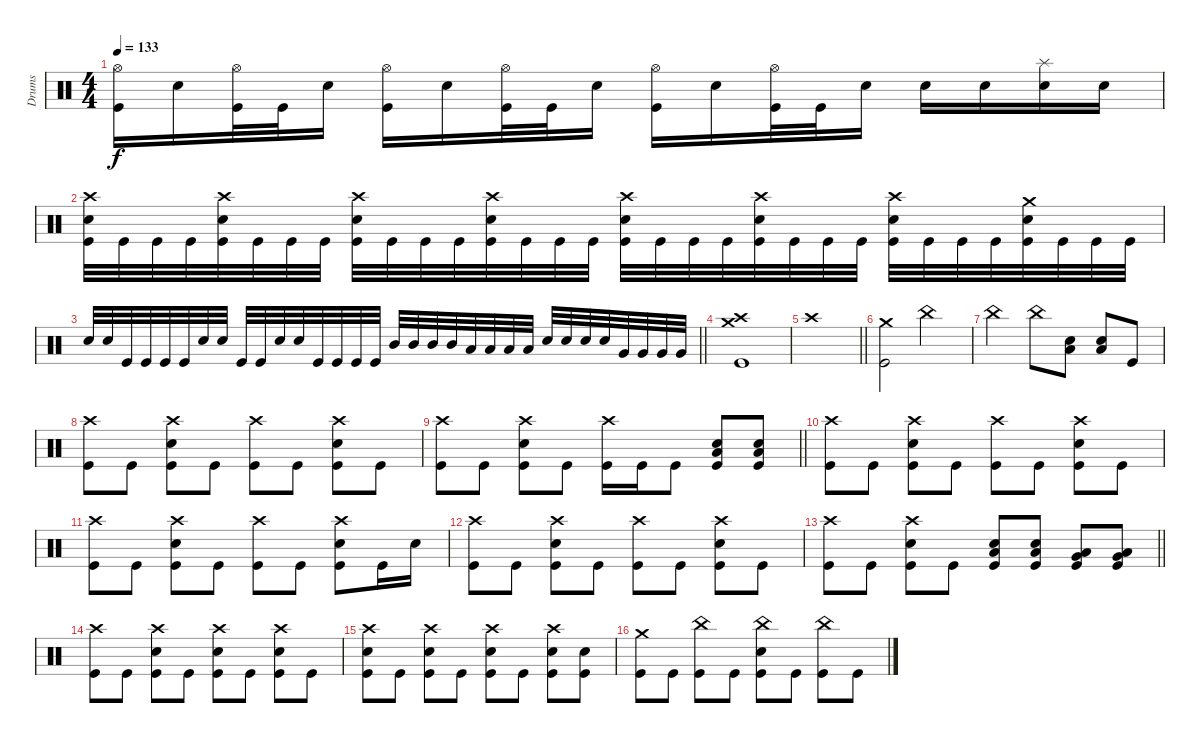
\track ("Drums" "Drums") {instrument percussion}
\staff
\articulation defaults
\ts (4 4)
\tempo 133
\clef neutral
\ks c
("Hi-Hat (open)" "Kick (hit)").16{dy f} "Electric Snare (hit)".16 ("Hi-Hat (open)" "Kick (hit)").32 "Kick (hit)".32 "Electric Snare (hit)".16 ("Hi-Hat (open)" "Kick (hit)").16 "Electric Snare (hit)".16 ("Hi-Hat (open)" "Kick (hit)").32 "Kick (hit)".32 "Electric Snare (hit)".16 ("Hi-Hat (open)" "Kick (hit)").16 "Electric Snare (hit)".16 ("Hi-Hat (open)" "Kick (hit)").32 "Kick (hit)".32 "Electric Snare (hit)".16 "Electric Snare (hit)".16 "Electric Snare (hit)".16 ("Splash (hit)" "Electric Snare (hit)").16 "Electric Snare (hit)".16 |
("Crash high (hit)" "Electric Snare (hit)" "Kick (hit)").32 "Kick (hit)".32 "Kick (hit)".32 "Kick (hit)".32 ("Crash high (hit)" "Electric Snare (hit)" "Kick (hit)").32 "Kick (hit)".32 "Kick (hit)".32 "Kick (hit)".32 ("Crash high (hit)" "Electric Snare (hit)" "Kick (hit)").32 "Kick (hit)".32 "Kick (hit)".32 "Kick (hit)".32 ("Crash high (hit)" "Electric Snare (hit)" "Kick (hit)").32 "Kick (hit)".32 "Kick (hit)".32 "Kick (hit)".32 ("Crash high (hit)" "Electric Snare (hit)" "Kick (hit)").32 "Kick (hit)".32 "Kick (hit)".32 "Kick (hit)".32 ("Crash high (hit)" "Electric Snare (hit)" "Kick (hit)").32 "Kick (hit)".32 "Kick (hit)".32 "Kick (hit)".32 ("Crash high (hit)" "Electric Snare (hit)" "Kick (hit)").32 "Kick (hit)".32 "Kick (hit)".32 "Kick (hit)".32 ("Crash medium (hit)" "Electric Snare (hit)" "Kick (hit)").32 "Kick (hit)".32 "Kick (hit)".32 "Kick (hit)".32 |
\barLineRight lightlight "Electric Snare (hit)".32 "Electric Snare (hit)".32 "Kick (hit)".32 "Kick (hit)".32 "Kick (hit)".32 "Kick (hit)".32 "Electric Snare (hit)".32 "Electric Snare (hit)".32 "Kick (hit)".32 "Kick (hit)".32 "Electric Snare (hit)".32 "Electric Snare (hit)".32 "Kick (hit)".32 "Kick (hit)".32 "Kick (hit)".32 "Kick (hit)".32 "Mid Tom (hit)".32 "Mid Tom (hit)".32 "Mid Tom (hit)".32 "Mid Tom (hit)".32 "Low Tom (hit)".32 "Low Tom (hit)".32 "Low Tom (hit)".32 "Low Tom (hit)".32 "Electric Snare (hit)".32 "Electric Snare (hit)".32 "Electric Snare (hit)".32 "Electric Snare (hit)".32 "Very Low Tom (hit)".32 "Very Low Tom (hit)".32 "Very Low Tom (hit)".32 "Very Low Tom (hit)".32
|
("Crash high (hit)" "Crash medium (hit)" "Kick (hit)").1 |
\barLineRight lightlight "Crash high (hit)".1
|
\section ("" "")
("Crash medium (hit)" "Kick (hit)").2 "China (hit)".2 |
"China (hit)".2 "China (hit)".8 ("Low Floor Tom (hit)" "Electric Snare (hit)").8 ("Low Floor Tom (hit)" "Electric Snare (hit)").8 "Kick (hit)".8 |
("Crash high (hit)" "Kick (hit)").8 "Kick (hit)".8 ("Crash high (hit)" "Electric Snare (hit)" "Kick (hit)").8 "Kick (hit)".8 ("Crash high (hit)" "Kick (hit)").8 "Kick (hit)".8 ("Crash high (hit)" "Electric Snare (hit)" "Kick (hit)").8 "Kick (hit)".8 |
\barLineRight lightlight
("Crash high (hit)" "Kick (hit)").8 "Kick (hit)".8 ("Crash high (hit)" "Electric Snare (hit)" "Kick (hit)").8 "Kick (hit)".8 ("Crash high (hit)" "Kick (hit)").16 "Kick (hit)".16 "Kick (hit)".8 ("Low Floor Tom (hit)" "Electric Snare (hit)" "Kick (hit)").8 ("Low Floor Tom (hit)" "Electric Snare (hit)" "Kick (hit)").8 |
("Crash high (hit)" "Kick (hit)").8 "Kick (hit)".8 ("Crash high (hit)" "Electric Snare (hit)" "Kick (hit)").8 "Kick (hit)".8 ("Crash high (hit)" "Kick (hit)").8 "Kick (hit)".8 ("Crash high (hit)" "Electric Snare (hit)" "Kick (hit)").8 "Kick (hit)".8 |
("Crash high (hit)" "Kick (hit)").8 "Kick (hit)".8 ("Crash high (hit)" "Electric Snare (hit)" "Kick (hit)").8 "Kick (hit)".8 ("Crash high (hit)" "Kick (hit)").8 "Kick (hit)".8 ("Crash high (hit)" "Electric Snare (hit)" "Kick (hit)").8 "Kick (hit)".16 "Electric Snare (hit)".16 |
("Crash high (hit)" "Kick (hit)").8 "Kick (hit)".8 ("Crash high (hit)" "Electric Snare (hit)" "Kick (hit)").8 "Kick (hit)".8 ("Crash high (hit)" "Kick (hit)").8 "Kick (hit)".8 ("Crash high (hit)" "Electric Snare (hit)" "Kick (hit)").8 "Kick (hit)".8 |
\barLineRight lightlight
("Crash high (hit)" "Kick (hit)").8 "Kick (hit)".8 ("Crash high (hit)" "Electric Snare (hit)" "Kick (hit)").8 "Kick (hit)".8 ("Low Floor Tom (hit)" "Electric Snare (hit)" "Kick (hit)").8 ("Low Floor Tom (hit)" "Electric Snare (hit)" "Kick (hit)").8 ("Very Low Tom (hit)" "Low Floor Tom (hit)" "Kick (hit)").8 ("Very Low Tom (hit)" "Low Floor Tom (hit)" "Kick (hit)").8 |
("Crash high (hit)" "Kick (hit)").8 "Kick (hit)".8 ("Crash high (hit)" "Electric Snare (hit)" "Kick (hit)").8 "Kick (hit)".8 ("Crash high (hit)" "Electric Snare (hit)" "Kick (hit)").8 "Kick (hit)".8 ("Crash high (hit)" "Electric Snare (hit)" "Kick (hit)").8 "Kick (hit)".8 |
("Crash high (hit)" "Electric Snare (hit)" "Kick (hit)").8 "Kick (hit)".8 ("Crash high (hit)" "Electric Snare (hit)" "Kick (hit)").8 "Kick (hit)".8 ("Crash high (hit)" "Electric Snare (hit)" "Kick (hit)").8 "Kick (hit)".8 ("Crash high (hit)" "Electric Snare (hit)" "Kick (hit)").8 ("Electric Snare (hit)" "Kick (hit)").8 |
("Crash medium (hit)" "Kick (hit)").8 "Kick (hit)".8 ("China (hit)" "Kick (hit)").8 "Kick (hit)".8 ("China (hit)" "Electric Snare (hit)" "Kick (hit)").8 "Kick (hit)".8 ("China (hit)" "Kick (hit)").8 "Kick (hit)".8
